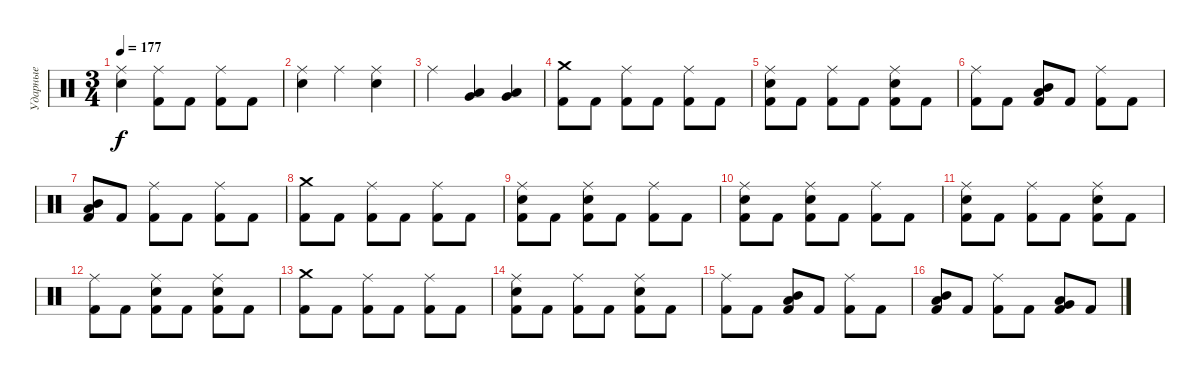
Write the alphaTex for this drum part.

\track ("Ударные" "Ударные") {instrument percussion}
\staff {score}
\articulation defaults
\ts (3 4)
\tempo 177
\clef neutral
\ks c
("Ride (middle)" "Snare (hit) 2").4{dy f} ("Ride (middle)" "Kick (hit) 2").8 "Kick (hit) 2".8 ("Ride (middle)" "Kick (hit) 2").8 "Kick (hit) 2".8 |
("Ride (middle)" "Snare (hit) 2").4 "Ride (middle)".4 ("Ride (middle)" "Snare (hit) 2").4 |
"Ride (middle)".4 ("Low Tom (hit)" "Very Low Tom (hit)").4 ("Low Tom (hit)" "Very Low Tom (hit)").4 |
("Crash medium (hit)" "Kick (hit) 2").8 "Kick (hit) 2".8 ("Ride (middle)" "Kick (hit) 2").8 "Kick (hit) 2".8 ("Ride (middle)" "Kick (hit) 2").8 "Kick (hit) 2".8 |
("Ride (middle)" "Snare (hit) 2" "Kick (hit) 2").8 "Kick (hit) 2".8 ("Ride (middle)" "Kick (hit) 2").8 "Kick (hit) 2".8 ("Ride (middle)" "Snare (hit) 2" "Kick (hit) 2").8 "Kick (hit) 2".8 |
("Ride (middle)" "Kick (hit) 2").8 "Kick (hit) 2".8 ("Mid Tom (hit)" "Low Tom (hit)" "Kick (hit) 2").8 "Kick (hit) 2".8 ("Ride (middle)" "Kick (hit) 2").8 "Kick (hit) 2".8 |
("Mid Tom (hit)" "Low Tom (hit)" "Kick (hit) 2").8 "Kick (hit) 2".8 ("Ride (middle)" "Kick (hit) 2").8 "Kick (hit) 2".8 ("Ride (middle)" "Kick (hit) 2").8 "Kick (hit) 2".8 |
("Crash medium (hit)" "Kick (hit) 2").8 "Kick (hit) 2".8 ("Ride (middle)" "Kick (hit) 2").8 "Kick (hit) 2".8 ("Ride (middle)" "Kick (hit) 2").8 "Kick (hit) 2".8 |
("Ride (middle)" "Snare (hit) 2" "Kick (hit) 2").8 "Kick (hit) 2".8 ("Ride (middle)" "Snare (hit) 2" "Kick (hit) 2").8 "Kick (hit) 2".8 ("Ride (middle)" "Kick (hit) 2").8 "Kick (hit) 2".8 |
("Ride (middle)" "Snare (hit) 2" "Kick (hit) 2").8 "Kick (hit) 2".8 ("Ride (middle)" "Snare (hit) 2" "Kick (hit) 2").8 "Kick (hit) 2".8 ("Ride (middle)" "Kick (hit) 2").8 "Kick (hit) 2".8 |
("Ride (middle)" "Snare (hit) 2" "Kick (hit) 2").8 "Kick (hit) 2".8 ("Ride (middle)" "Kick (hit) 2").8 "Kick (hit) 2".8 ("Ride (middle)" "Snare (hit) 2" "Kick (hit) 2").8 "Kick (hit) 2".8 |
("Ride (middle)" "Kick (hit) 2").8 "Kick (hit) 2".8 ("Ride (middle)" "Snare (hit) 2" "Kick (hit) 2").8 "Kick (hit) 2".8 ("Ride (middle)" "Snare (hit) 2" "Kick (hit) 2").8 "Kick (hit) 2".8 |
("Crash medium (hit)" "Kick (hit) 2").8 "Kick (hit) 2".8 ("Ride (middle)" "Kick (hit) 2").8 "Kick (hit) 2".8 ("Ride (middle)" "Kick (hit) 2").8 "Kick (hit) 2".8 |
("Ride (middle)" "Snare (hit) 2" "Kick (hit) 2").8 "Kick (hit) 2".8 ("Ride (middle)" "Kick (hit) 2").8 "Kick (hit) 2".8 ("Ride (middle)" "Snare (hit) 2" "Kick (hit) 2").8 "Kick (hit) 2".8 |
("Ride (middle)" "Kick (hit) 2").8 "Kick (hit) 2".8 ("Mid Tom (hit)" "Low Tom (hit)" "Kick (hit) 2").8 "Kick (hit) 2".8 ("Ride (middle)" "Kick (hit) 2").8 "Kick (hit) 2".8 |
("Mid Tom (hit)" "Low Tom (hit)" "Kick (hit) 2").8 "Kick (hit) 2".8 ("Ride (middle)" "Kick (hit) 2").8 "Kick (hit) 2".8 ("Low Tom (hit)" "Very Low Tom (hit)" "Kick (hit) 2").8 "Kick (hit) 2".8
